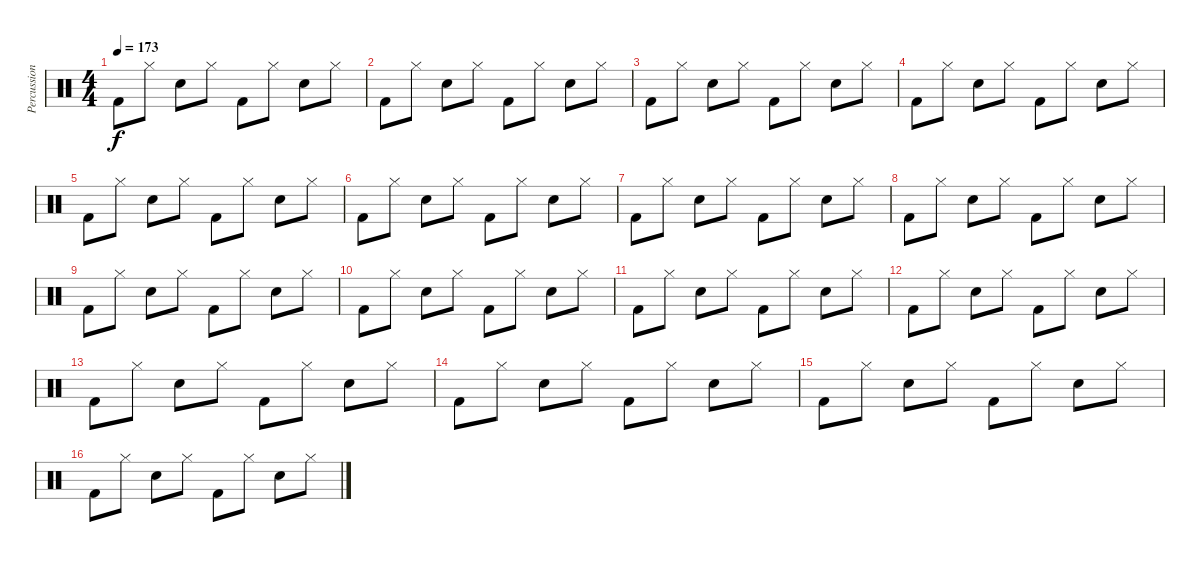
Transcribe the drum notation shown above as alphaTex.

\track ("Percussions" "Percussion") {instrument percussion}
\staff {score}
\articulation defaults
\ts (4 4)
\tempo 173
\clef neutral
\ks c "Kick (hit) 2".8{dy f} "Hi-Hat (closed)".8 "Electric Snare (hit)".8 "Hi-Hat (closed)".8 "Kick (hit) 2".8 "Hi-Hat (closed)".8 "Electric Snare (hit)".8 "Hi-Hat (closed)".8
|
"Kick (hit) 2".8 "Hi-Hat (closed)".8 "Electric Snare (hit)".8 "Hi-Hat (closed)".8 "Kick (hit) 2".8 "Hi-Hat (closed)".8 "Electric Snare (hit)".8 "Hi-Hat (closed)".8 |
"Kick (hit) 2".8 "Hi-Hat (closed)".8 "Electric Snare (hit)".8 "Hi-Hat (closed)".8 "Kick (hit) 2".8 "Hi-Hat (closed)".8 "Electric Snare (hit)".8 "Hi-Hat (closed)".8 |
"Kick (hit) 2".8 "Hi-Hat (closed)".8 "Electric Snare (hit)".8 "Hi-Hat (closed)".8 "Kick (hit) 2".8 "Hi-Hat (closed)".8 "Electric Snare (hit)".8 "Hi-Hat (closed)".8 |
"Kick (hit) 2".8 "Hi-Hat (closed)".8 "Electric Snare (hit)".8 "Hi-Hat (closed)".8 "Kick (hit) 2".8 "Hi-Hat (closed)".8 "Electric Snare (hit)".8 "Hi-Hat (closed)".8 |
"Kick (hit) 2".8 "Hi-Hat (closed)".8 "Electric Snare (hit)".8 "Hi-Hat (closed)".8 "Kick (hit) 2".8 "Hi-Hat (closed)".8 "Electric Snare (hit)".8 "Hi-Hat (closed)".8 |
"Kick (hit) 2".8 "Hi-Hat (closed)".8 "Electric Snare (hit)".8 "Hi-Hat (closed)".8 "Kick (hit) 2".8 "Hi-Hat (closed)".8 "Electric Snare (hit)".8 "Hi-Hat (closed)".8 |
"Kick (hit) 2".8 "Hi-Hat (closed)".8 "Electric Snare (hit)".8 "Hi-Hat (closed)".8 "Kick (hit) 2".8 "Hi-Hat (closed)".8 "Electric Snare (hit)".8 "Hi-Hat (closed)".8 |
"Kick (hit) 2".8 "Hi-Hat (closed)".8 "Electric Snare (hit)".8 "Hi-Hat (closed)".8 "Kick (hit) 2".8 "Hi-Hat (closed)".8 "Electric Snare (hit)".8 "Hi-Hat (closed)".8 |
"Kick (hit) 2".8 "Hi-Hat (closed)".8 "Electric Snare (hit)".8 "Hi-Hat (closed)".8 "Kick (hit) 2".8 "Hi-Hat (closed)".8 "Electric Snare (hit)".8 "Hi-Hat (closed)".8 |
"Kick (hit) 2".8 "Hi-Hat (closed)".8 "Electric Snare (hit)".8 "Hi-Hat (closed)".8 "Kick (hit) 2".8 "Hi-Hat (closed)".8 "Electric Snare (hit)".8 "Hi-Hat (closed)".8 |
"Kick (hit) 2".8 "Hi-Hat (closed)".8 "Electric Snare (hit)".8 "Hi-Hat (closed)".8 "Kick (hit) 2".8 "Hi-Hat (closed)".8 "Electric Snare (hit)".8 "Hi-Hat (closed)".8 |
"Kick (hit) 2".8 "Hi-Hat (closed)".8 "Electric Snare (hit)".8 "Hi-Hat (closed)".8 "Kick (hit) 2".8 "Hi-Hat (closed)".8 "Electric Snare (hit)".8 "Hi-Hat (closed)".8 |
"Kick (hit) 2".8 "Hi-Hat (closed)".8 "Electric Snare (hit)".8 "Hi-Hat (closed)".8 "Kick (hit) 2".8 "Hi-Hat (closed)".8 "Electric Snare (hit)".8 "Hi-Hat (closed)".8 |
"Kick (hit) 2".8 "Hi-Hat (closed)".8 "Electric Snare (hit)".8 "Hi-Hat (closed)".8 "Kick (hit) 2".8 "Hi-Hat (closed)".8 "Electric Snare (hit)".8 "Hi-Hat (closed)".8 |
"Kick (hit) 2".8 "Hi-Hat (closed)".8 "Electric Snare (hit)".8 "Hi-Hat (closed)".8 "Kick (hit) 2".8 "Hi-Hat (closed)".8 "Electric Snare (hit)".8 "Hi-Hat (closed)".8
